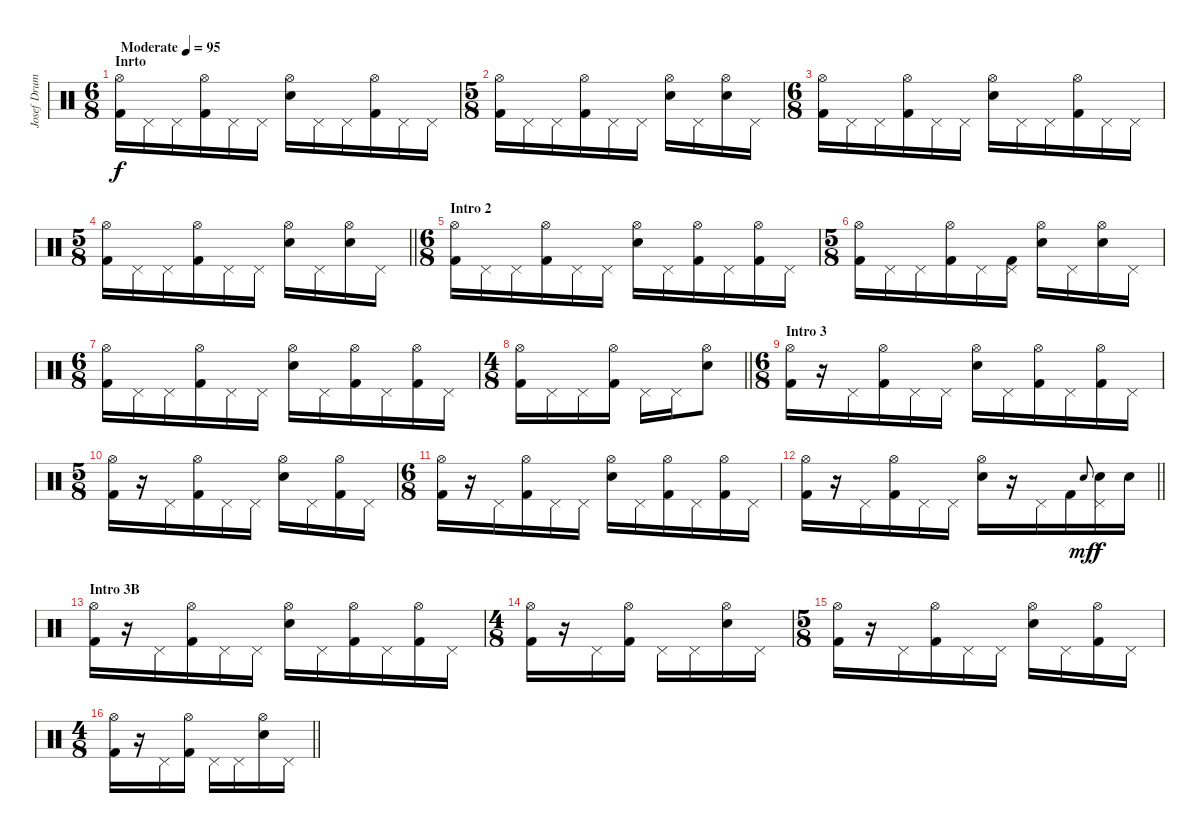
\track ("Josef Drums" "Josef Drum") {instrument percussion}
\staff {score}
\articulation defaults
\ts (6 8)
\section ("" "Inrto")
\tempo (95 "Moderate")
\clef neutral
\ks c
("Kick (hit) 2" "Hi-Hat (open)").16{dy f} "Pedal Hi-Hat (hit)".16 "Pedal Hi-Hat (hit)".16 ("Kick (hit) 2" "Hi-Hat (open)").16 "Pedal Hi-Hat (hit)".16 "Pedal Hi-Hat (hit)".16 ("Electric Snare (hit)" "Hi-Hat (open)").16 "Pedal Hi-Hat (hit)".16 "Pedal Hi-Hat (hit)".16 ("Kick (hit) 2" "Hi-Hat (open)").16 "Pedal Hi-Hat (hit)".16 "Pedal Hi-Hat (hit)".16 |
\ts (5 8)
("Kick (hit) 2" "Hi-Hat (open)").16 "Pedal Hi-Hat (hit)".16 "Pedal Hi-Hat (hit)".16 ("Kick (hit) 2" "Hi-Hat (open)").16 "Pedal Hi-Hat (hit)".16 "Pedal Hi-Hat (hit)".16 ("Electric Snare (hit)" "Hi-Hat (open)").16 "Pedal Hi-Hat (hit)".16 ("Electric Snare (hit)" "Hi-Hat (open)").16 "Pedal Hi-Hat (hit)".16 |
\ts (6 8)
("Kick (hit) 2" "Hi-Hat (open)").16 "Pedal Hi-Hat (hit)".16 "Pedal Hi-Hat (hit)".16 ("Kick (hit) 2" "Hi-Hat (open)").16 "Pedal Hi-Hat (hit)".16 "Pedal Hi-Hat (hit)".16 ("Electric Snare (hit)" "Hi-Hat (open)").16 "Pedal Hi-Hat (hit)".16 "Pedal Hi-Hat (hit)".16 ("Kick (hit) 2" "Hi-Hat (open)").16 "Pedal Hi-Hat (hit)".16 "Pedal Hi-Hat (hit)".16 |
\ts (5 8)
\barLineRight lightlight
("Kick (hit) 2" "Hi-Hat (open)").16 "Pedal Hi-Hat (hit)".16 "Pedal Hi-Hat (hit)".16 ("Kick (hit) 2" "Hi-Hat (open)").16 "Pedal Hi-Hat (hit)".16 "Pedal Hi-Hat (hit)".16 ("Electric Snare (hit)" "Hi-Hat (open)").16 "Pedal Hi-Hat (hit)".16 ("Electric Snare (hit)" "Hi-Hat (open)").16 "Pedal Hi-Hat (hit)".16 |
\ts (6 8)
\section ("" "Intro 2")
("Kick (hit) 2" "Hi-Hat (open)").16 "Pedal Hi-Hat (hit)".16 "Pedal Hi-Hat (hit)".16 ("Kick (hit) 2" "Hi-Hat (open)").16 "Pedal Hi-Hat (hit)".16 "Pedal Hi-Hat (hit)".16 ("Electric Snare (hit)" "Hi-Hat (open)").16 "Pedal Hi-Hat (hit)".16 ("Kick (hit) 2" "Hi-Hat (open)").16 "Pedal Hi-Hat (hit)".16 ("Kick (hit) 2" "Hi-Hat (open)").16 "Pedal Hi-Hat (hit)".16 |
\ts (5 8)
("Kick (hit) 2" "Hi-Hat (open)").16 "Pedal Hi-Hat (hit)".16 "Pedal Hi-Hat (hit)".16 ("Kick (hit) 2" "Hi-Hat (open)").16 "Pedal Hi-Hat (hit)".16 ("Kick (hit) 2" "Pedal Hi-Hat (hit)").16 ("Electric Snare (hit)" "Hi-Hat (open)").16 "Pedal Hi-Hat (hit)".16 ("Electric Snare (hit)" "Hi-Hat (open)").16 "Pedal Hi-Hat (hit)".16 |
\ts (6 8)
("Kick (hit) 2" "Hi-Hat (open)").16 "Pedal Hi-Hat (hit)".16 "Pedal Hi-Hat (hit)".16 ("Kick (hit) 2" "Hi-Hat (open)").16 "Pedal Hi-Hat (hit)".16 "Pedal Hi-Hat (hit)".16 ("Electric Snare (hit)" "Hi-Hat (open)").16 "Pedal Hi-Hat (hit)".16 ("Kick (hit) 2" "Hi-Hat (open)").16 "Pedal Hi-Hat (hit)".16 ("Kick (hit) 2" "Hi-Hat (open)").16 "Pedal Hi-Hat (hit)".16 |
\ts (4 8)
\barLineRight lightlight
("Kick (hit) 2" "Hi-Hat (open)").16 "Pedal Hi-Hat (hit)".16 "Pedal Hi-Hat (hit)".16 ("Kick (hit) 2" "Hi-Hat (open)").16 "Pedal Hi-Hat (hit)".16 "Pedal Hi-Hat (hit)".16 ("Electric Snare (hit)" "Hi-Hat (open)").8 |
\ts (6 8)
\section ("" "Intro 3")
("Kick (hit) 2" "Hi-Hat (open)").16 r.16 "Pedal Hi-Hat (hit)".16 ("Kick (hit) 2" "Hi-Hat (open)").16 "Pedal Hi-Hat (hit)".16 "Pedal Hi-Hat (hit)".16 ("Electric Snare (hit)" "Hi-Hat (open)").16 "Pedal Hi-Hat (hit)".16 ("Kick (hit) 2" "Hi-Hat (open)").16 "Pedal Hi-Hat (hit)".16 ("Kick (hit) 2" "Hi-Hat (open)").16 "Pedal Hi-Hat (hit)".16 |
\ts (5 8)
("Kick (hit) 2" "Hi-Hat (open)").16 r.16 "Pedal Hi-Hat (hit)".16 ("Kick (hit) 2" "Hi-Hat (open)").16 "Pedal Hi-Hat (hit)".16 "Pedal Hi-Hat (hit)".16 ("Electric Snare (hit)" "Hi-Hat (open)").16 "Pedal Hi-Hat (hit)".16 ("Kick (hit) 2" "Hi-Hat (open)").16 "Pedal Hi-Hat (hit)".16 |
\ts (6 8)
("Kick (hit) 2" "Hi-Hat (open)").16 r.16 "Pedal Hi-Hat (hit)".16 ("Kick (hit) 2" "Hi-Hat (open)").16 "Pedal Hi-Hat (hit)".16 "Pedal Hi-Hat (hit)".16 ("Electric Snare (hit)" "Hi-Hat (open)").16 "Pedal Hi-Hat (hit)".16 ("Kick (hit) 2" "Hi-Hat (open)").16 "Pedal Hi-Hat (hit)".16 ("Kick (hit) 2" "Hi-Hat (open)").16 "Pedal Hi-Hat (hit)".16 |
\barLineRight lightlight
("Kick (hit) 2" "Hi-Hat (open)").16 r.16 "Pedal Hi-Hat (hit)".16 ("Kick (hit) 2" "Hi-Hat (open)").16 "Pedal Hi-Hat (hit)".16 "Pedal Hi-Hat (hit)".16 ("Electric Snare (hit)" "Hi-Hat (open)").16 r.16 "Pedal Hi-Hat (hit)".16 "Kick (hit) 2".16 "Electric Snare (hit)".8{gr onbeat dy mf} ("Electric Snare (hit)" "Pedal Hi-Hat (hit)").16{dy f} "Electric Snare (hit)".16 |
\section ("" "Intro 3B")
("Kick (hit) 2" "Hi-Hat (open)").16 r.16 "Pedal Hi-Hat (hit)".16 ("Kick (hit) 2" "Hi-Hat (open)").16 "Pedal Hi-Hat (hit)".16 "Pedal Hi-Hat (hit)".16 ("Electric Snare (hit)" "Hi-Hat (open)").16 "Pedal Hi-Hat (hit)".16 ("Kick (hit) 2" "Hi-Hat (open)").16 "Pedal Hi-Hat (hit)".16 ("Kick (hit) 2" "Hi-Hat (open)").16 "Pedal Hi-Hat (hit)".16 |
\ts (4 8)
("Kick (hit) 2" "Hi-Hat (open)").16 r.16 "Pedal Hi-Hat (hit)".16 ("Kick (hit) 2" "Hi-Hat (open)").16 "Pedal Hi-Hat (hit)".16 "Pedal Hi-Hat (hit)".16 ("Electric Snare (hit)" "Hi-Hat (open)").16 "Pedal Hi-Hat (hit)".16 |
\ts (5 8)
("Kick (hit) 2" "Hi-Hat (open)").16 r.16 "Pedal Hi-Hat (hit)".16 ("Kick (hit) 2" "Hi-Hat (open)").16 "Pedal Hi-Hat (hit)".16 "Pedal Hi-Hat (hit)".16 ("Electric Snare (hit)" "Hi-Hat (open)").16 "Pedal Hi-Hat (hit)".16 ("Kick (hit) 2" "Hi-Hat (open)").16 "Pedal Hi-Hat (hit)".16 |
\ts (4 8)
\barLineRight lightlight
("Kick (hit) 2" "Hi-Hat (open)").16 r.16 "Pedal Hi-Hat (hit)".16 ("Kick (hit) 2" "Hi-Hat (open)").16 "Pedal Hi-Hat (hit)".16 "Pedal Hi-Hat (hit)".16 ("Electric Snare (hit)" "Hi-Hat (open)").16 "Pedal Hi-Hat (hit)".16
